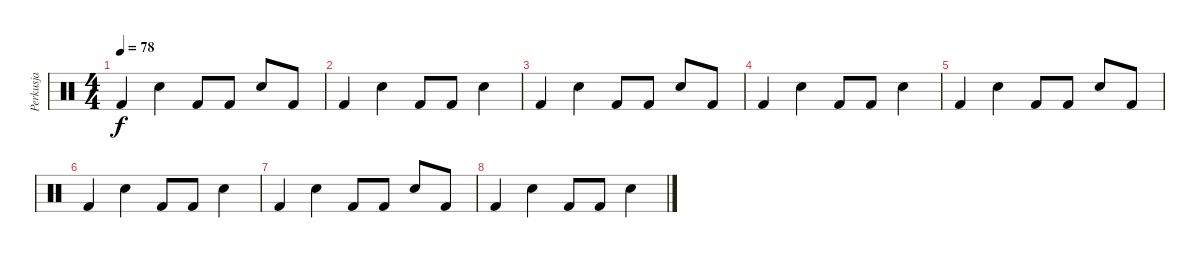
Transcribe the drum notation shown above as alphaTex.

\track ("Perkusja" "Perkusja") {instrument percussion}
\staff {score}
\articulation defaults
\ts (4 4)
\tempo 78
\clef neutral
\ks c "Kick (hit) 2".4{dy f} "Snare (hit) 2".4 "Kick (hit) 2".8 "Kick (hit) 2".8 "Snare (hit) 2".8 "Kick (hit) 2".8
|
"Kick (hit) 2".4 "Snare (hit) 2".4 "Kick (hit) 2".8 "Kick (hit) 2".8 "Snare (hit) 2".4 |
"Kick (hit) 2".4 "Snare (hit) 2".4 "Kick (hit) 2".8 "Kick (hit) 2".8 "Snare (hit) 2".8 "Kick (hit) 2".8 |
"Kick (hit) 2".4 "Snare (hit) 2".4 "Kick (hit) 2".8 "Kick (hit) 2".8 "Snare (hit) 2".4 |
"Kick (hit) 2".4 "Snare (hit) 2".4 "Kick (hit) 2".8 "Kick (hit) 2".8 "Snare (hit) 2".8 "Kick (hit) 2".8 |
"Kick (hit) 2".4 "Snare (hit) 2".4 "Kick (hit) 2".8 "Kick (hit) 2".8 "Snare (hit) 2".4 |
"Kick (hit) 2".4 "Snare (hit) 2".4 "Kick (hit) 2".8 "Kick (hit) 2".8 "Snare (hit) 2".8 "Kick (hit) 2".8 |
"Kick (hit) 2".4 "Snare (hit) 2".4 "Kick (hit) 2".8 "Kick (hit) 2".8 "Snare (hit) 2".4
